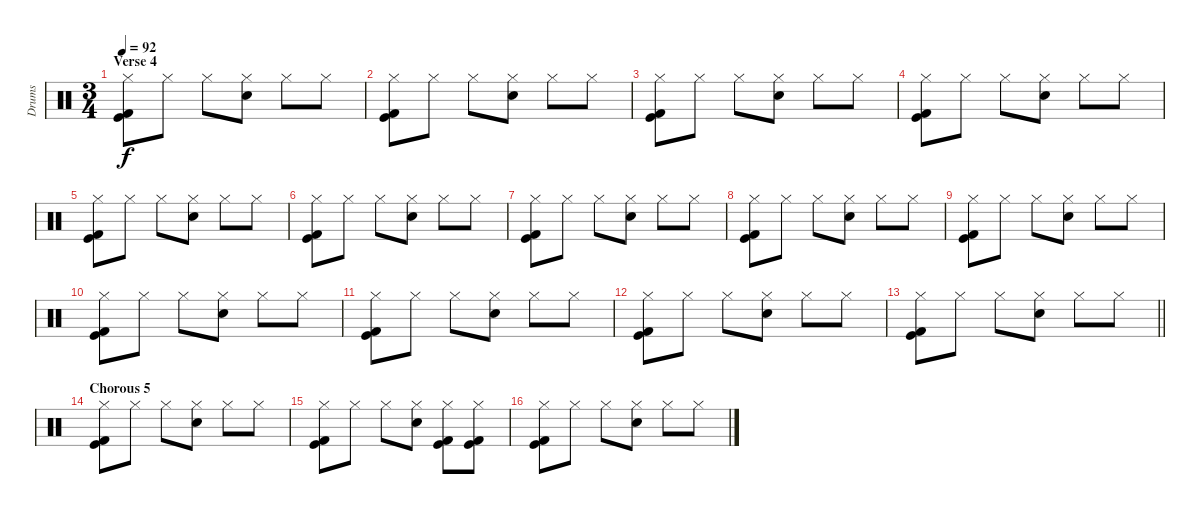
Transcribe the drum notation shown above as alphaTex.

\track ("Drums" "Drums") {instrument percussion}
\staff {score}
\articulation defaults
\ts (3 4)
\section ("" "Verse 4")
\tempo 92
\clef neutral
\ks c
("Hi-Hat (closed)" "Kick (hit)" "Kick (hit) 2").8{dy f} "Hi-Hat (closed)".8 "Hi-Hat (closed)".8 ("Hi-Hat (closed)" "Electric Snare (hit)").8 "Hi-Hat (closed)".8 "Hi-Hat (closed)".8 |
("Hi-Hat (closed)" "Kick (hit)" "Kick (hit) 2").8 "Hi-Hat (closed)".8 "Hi-Hat (closed)".8 ("Hi-Hat (closed)" "Electric Snare (hit)").8 "Hi-Hat (closed)".8 "Hi-Hat (closed)".8 |
("Hi-Hat (closed)" "Kick (hit)" "Kick (hit) 2").8 "Hi-Hat (closed)".8 "Hi-Hat (closed)".8 ("Hi-Hat (closed)" "Electric Snare (hit)").8 "Hi-Hat (closed)".8 "Hi-Hat (closed)".8 |
("Hi-Hat (closed)" "Kick (hit)" "Kick (hit) 2").8 "Hi-Hat (closed)".8 "Hi-Hat (closed)".8 ("Hi-Hat (closed)" "Electric Snare (hit)").8 "Hi-Hat (closed)".8 "Hi-Hat (closed)".8 |
("Hi-Hat (closed)" "Kick (hit)" "Kick (hit) 2").8 "Hi-Hat (closed)".8 "Hi-Hat (closed)".8 ("Hi-Hat (closed)" "Electric Snare (hit)").8 "Hi-Hat (closed)".8 "Hi-Hat (closed)".8 |
("Hi-Hat (closed)" "Kick (hit)" "Kick (hit) 2").8 "Hi-Hat (closed)".8 "Hi-Hat (closed)".8 ("Hi-Hat (closed)" "Electric Snare (hit)").8 "Hi-Hat (closed)".8 "Hi-Hat (closed)".8 |
("Hi-Hat (closed)" "Kick (hit)" "Kick (hit) 2").8 "Hi-Hat (closed)".8 "Hi-Hat (closed)".8 ("Hi-Hat (closed)" "Electric Snare (hit)").8 "Hi-Hat (closed)".8 "Hi-Hat (closed)".8 |
("Hi-Hat (closed)" "Kick (hit)" "Kick (hit) 2").8 "Hi-Hat (closed)".8 "Hi-Hat (closed)".8 ("Hi-Hat (closed)" "Electric Snare (hit)").8 "Hi-Hat (closed)".8 "Hi-Hat (closed)".8 |
("Hi-Hat (closed)" "Kick (hit)" "Kick (hit) 2").8 "Hi-Hat (closed)".8 "Hi-Hat (closed)".8 ("Hi-Hat (closed)" "Electric Snare (hit)").8 "Hi-Hat (closed)".8 "Hi-Hat (closed)".8 |
("Hi-Hat (closed)" "Kick (hit)" "Kick (hit) 2").8 "Hi-Hat (closed)".8 "Hi-Hat (closed)".8 ("Hi-Hat (closed)" "Electric Snare (hit)").8 "Hi-Hat (closed)".8 "Hi-Hat (closed)".8 |
("Hi-Hat (closed)" "Kick (hit)" "Kick (hit) 2").8 "Hi-Hat (closed)".8 "Hi-Hat (closed)".8 ("Hi-Hat (closed)" "Electric Snare (hit)").8 "Hi-Hat (closed)".8 "Hi-Hat (closed)".8 |
("Hi-Hat (closed)" "Kick (hit)" "Kick (hit) 2").8 "Hi-Hat (closed)".8 "Hi-Hat (closed)".8 ("Hi-Hat (closed)" "Electric Snare (hit)").8 "Hi-Hat (closed)".8 "Hi-Hat (closed)".8 |
\barLineRight lightlight
("Hi-Hat (closed)" "Kick (hit)" "Kick (hit) 2").8 "Hi-Hat (closed)".8 "Hi-Hat (closed)".8 ("Hi-Hat (closed)" "Electric Snare (hit)").8 "Hi-Hat (closed)".8 "Hi-Hat (closed)".8 |
\section ("" "Chorous 5")
("Hi-Hat (closed)" "Kick (hit)" "Kick (hit) 2").8 "Hi-Hat (closed)".8 "Hi-Hat (closed)".8 ("Hi-Hat (closed)" "Electric Snare (hit)").8 "Hi-Hat (closed)".8 "Hi-Hat (closed)".8 |
("Hi-Hat (closed)" "Kick (hit)" "Kick (hit) 2").8 "Hi-Hat (closed)".8 "Hi-Hat (closed)".8 ("Hi-Hat (closed)" "Electric Snare (hit)").8 ("Hi-Hat (closed)" "Kick (hit)" "Kick (hit) 2").8 ("Hi-Hat (closed)" "Kick (hit)" "Kick (hit) 2").8 |
("Hi-Hat (closed)" "Kick (hit)" "Kick (hit) 2").8 "Hi-Hat (closed)".8 "Hi-Hat (closed)".8 ("Hi-Hat (closed)" "Electric Snare (hit)").8 "Hi-Hat (closed)".8 "Hi-Hat (closed)".8
